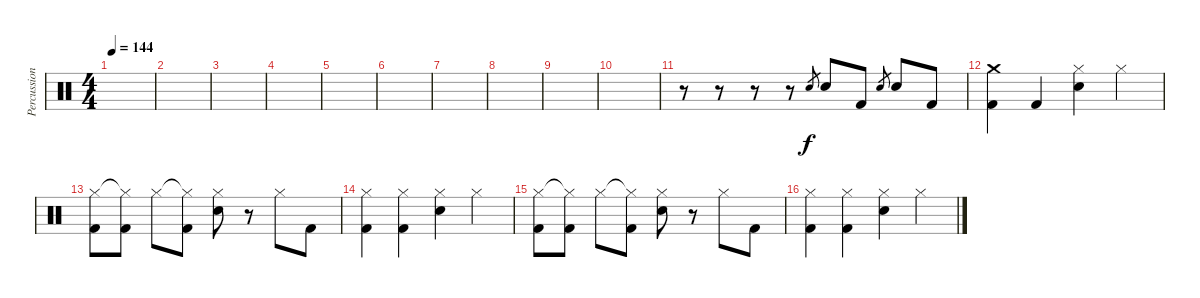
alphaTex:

\track ("Percussion" "Percussion") {instrument percussion}
\staff {score}
\articulation defaults
\ts (4 4)
\tempo 144
\clef neutral
\ks c
|
|
|
|
|
|
|
|
|
|
r.8 r.8 r.8 r.8 "Snare (hit) 2".8{gr} "Snare (hit) 2".8 "Kick (hit) 2".8 "Snare (hit) 2".8{gr} "Snare (hit) 2".8 "Kick (hit) 2".8 |
("Crash medium (hit)" "Kick (hit) 2").4 "Kick (hit) 2".4 ("Hi-Hat (closed)" "Snare (hit) 2").4 "Hi-Hat (closed)".4 |
("Hi-Hat (closed)" "Kick (hit) 2").8 ("Hi-Hat (closed)"{t} "Kick (hit) 2").8 "Hi-Hat (closed)".8 ("Hi-Hat (closed)"{t} "Kick (hit) 2").8 ("Hi-Hat (closed)" "Snare (hit) 2").8 r.8 "Hi-Hat (closed)".8 "Kick (hit) 2".8 |
("Hi-Hat (closed)" "Kick (hit) 2").4 ("Hi-Hat (closed)" "Kick (hit) 2").4 ("Hi-Hat (closed)" "Snare (hit) 2").4 "Hi-Hat (closed)".4 |
("Hi-Hat (closed)" "Kick (hit) 2").8 ("Hi-Hat (closed)"{t} "Kick (hit) 2").8 "Hi-Hat (closed)".8 ("Hi-Hat (closed)"{t} "Kick (hit) 2").8 ("Hi-Hat (closed)" "Snare (hit) 2").8 r.8 "Hi-Hat (closed)".8 "Kick (hit) 2".8 |
("Hi-Hat (closed)" "Kick (hit) 2").4 ("Hi-Hat (closed)" "Kick (hit) 2").4 ("Hi-Hat (closed)" "Snare (hit) 2").4 "Hi-Hat (closed)".4
